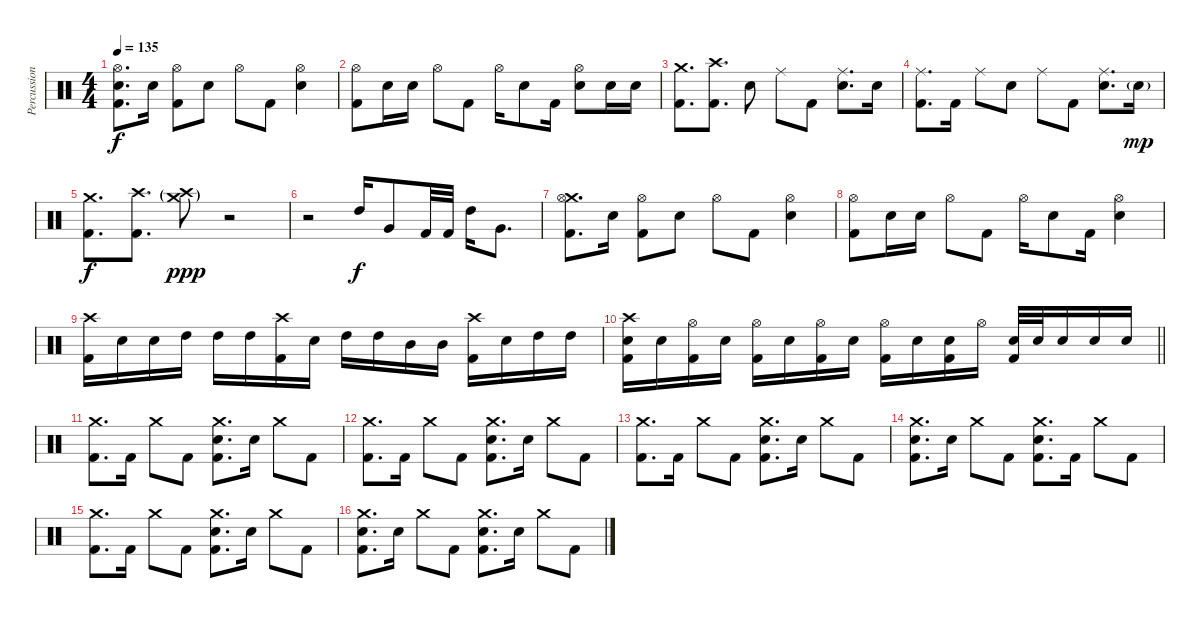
\track ("Percussions" "Percussion") {instrument percussion}
\staff {score}
\articulation defaults
\ts (4 4)
\tempo 135
\clef neutral
\ks c
("Hi-Hat (open)" "Electric Snare (hit)" "Kick (hit) 2").8{d dy f} "Electric Snare (hit)".16 ("Hi-Hat (open)" "Kick (hit) 2").8 "Electric Snare (hit)".8 "Hi-Hat (open)".8 "Kick (hit) 2".8 ("Hi-Hat (open)" "Electric Snare (hit)").4 |
("Hi-Hat (open)" "Kick (hit) 2").8 "Electric Snare (hit)".16 "Electric Snare (hit)".16 "Hi-Hat (open)".8 "Kick (hit) 2".8 "Hi-Hat (open)".16 "Electric Snare (hit)".8 "Kick (hit) 2".16 ("Hi-Hat (open)" "Electric Snare (hit)").8 "Electric Snare (hit)".16 "Electric Snare (hit)".16 |
("Crash medium (hit)" "Kick (hit) 2").8{d} ("Crash high (hit)" "Kick (hit) 2").8{d} "Electric Snare (hit)".8 "Ride (middle)".8 "Kick (hit) 2".8 ("Ride (middle)" "Electric Snare (hit)").8{d} "Electric Snare (hit)".16 |
("Ride (middle)" "Kick (hit) 2").8{d} "Kick (hit) 2".16 "Ride (middle)".8 "Electric Snare (hit)".8 "Ride (middle)".8 "Kick (hit) 2".8 ("Ride (middle)" "Electric Snare (hit)").8{d} "Electric Snare (hit)"{g}.16{dy mp} |
("Crash medium (hit)" "Kick (hit) 2").8{d dy f} ("Crash high (hit)" "Kick (hit) 2").8{d} ("Crash high (hit)"{g} "Crash medium (hit)"{g}).8{dy ppp} r.2 |
r.2 "High Tom (hit)".16{dy f} "Very Low Tom (hit)".8 "Kick (hit) 2".32 "Kick (hit) 2".32 "High Tom (hit)".16 "Very Low Tom (hit)".8{d} |
("Crash medium (hit)" "Hi-Hat (open)" "Kick (hit) 2").8{d} "Electric Snare (hit)".16 ("Hi-Hat (open)" "Kick (hit) 2").8 "Electric Snare (hit)".8 "Hi-Hat (open)".8 "Kick (hit) 2".8 ("Hi-Hat (open)" "Electric Snare (hit)").4 |
("Hi-Hat (open)" "Kick (hit) 2").8 "Electric Snare (hit)".16 "Electric Snare (hit)".16 "Hi-Hat (open)".8 "Kick (hit) 2".8 "Hi-Hat (open)".16 "Electric Snare (hit)".8 "Kick (hit) 2".16 ("Hi-Hat (open)" "Electric Snare (hit)").4 |
("Crash high (hit)" "Kick (hit) 2").16 "Electric Snare (hit)".16 "Electric Snare (hit)".16 "High Tom (hit)".16 "High Tom (hit)".16 "High Tom (hit)".16 ("Crash high (hit)" "Kick (hit) 2").16 "Electric Snare (hit)".16 "High Tom (hit)".16 "High Tom (hit)".16 "Mid Tom (hit)".16 "Mid Tom (hit)".16 ("Crash high (hit)" "Kick (hit) 2").16 "Electric Snare (hit)".16 "High Tom (hit)".16 "High Tom (hit)".16 |
\barLineRight lightlight
("Crash high (hit)" "Electric Snare (hit)" "Kick (hit) 2").16 "Electric Snare (hit)".16 ("Hi-Hat (open)" "Kick (hit) 2").16 "Electric Snare (hit)".16 ("Hi-Hat (open)" "Kick (hit) 2").16 "Electric Snare (hit)".16 ("Hi-Hat (open)" "Kick (hit) 2").16 "Electric Snare (hit)".16 ("Hi-Hat (open)" "Kick (hit) 2").16 "Electric Snare (hit)".16 ("Electric Snare (hit)" "Kick (hit) 2").16 "Hi-Hat (open)".16 ("Electric Snare (hit)" "Kick (hit) 2").32 "Electric Snare (hit)".32 "Electric Snare (hit)".16 "Electric Snare (hit)".16 "Electric Snare (hit)".16 |
("Crash medium (hit)" "Kick (hit) 2").8{d} "Kick (hit) 2".16 "Crash medium (hit)".8 "Kick (hit) 2".8 ("Crash medium (hit)" "Electric Snare (hit)" "Kick (hit) 2").8{d} "Electric Snare (hit)".16 "Crash medium (hit)".8 "Kick (hit) 2".8 |
("Crash medium (hit)" "Kick (hit) 2").8{d} "Kick (hit) 2".16 "Crash medium (hit)".8 "Kick (hit) 2".8 ("Crash medium (hit)" "Electric Snare (hit)" "Kick (hit) 2").8{d} "Electric Snare (hit)".16 "Crash medium (hit)".8 "Kick (hit) 2".8 |
("Crash medium (hit)" "Kick (hit) 2").8{d} "Kick (hit) 2".16 "Crash medium (hit)".8 "Kick (hit) 2".8 ("Crash medium (hit)" "Electric Snare (hit)" "Kick (hit) 2").8{d} "Electric Snare (hit)".16 "Crash medium (hit)".8 "Kick (hit) 2".8 |
("Crash medium (hit)" "Electric Snare (hit)" "Kick (hit) 2").8{d} "Electric Snare (hit)".16 "Crash medium (hit)".8 "Kick (hit) 2".8 ("Crash medium (hit)" "Electric Snare (hit)" "Kick (hit) 2").8{d} "Kick (hit) 2".16 "Crash medium (hit)".8 "Kick (hit) 2".8 |
("Crash medium (hit)" "Kick (hit) 2").8{d} "Kick (hit) 2".16 "Crash medium (hit)".8 "Kick (hit) 2".8 ("Crash medium (hit)" "Electric Snare (hit)" "Kick (hit) 2").8{d} "Electric Snare (hit)".16 "Crash medium (hit)".8 "Kick (hit) 2".8 |
("Crash medium (hit)" "Electric Snare (hit)" "Kick (hit) 2").8{d} "Electric Snare (hit)".16 "Crash medium (hit)".8 "Kick (hit) 2".8 ("Crash medium (hit)" "Electric Snare (hit)" "Kick (hit) 2").8{d} "Electric Snare (hit)".16 "Crash medium (hit)".8 "Kick (hit) 2".8
